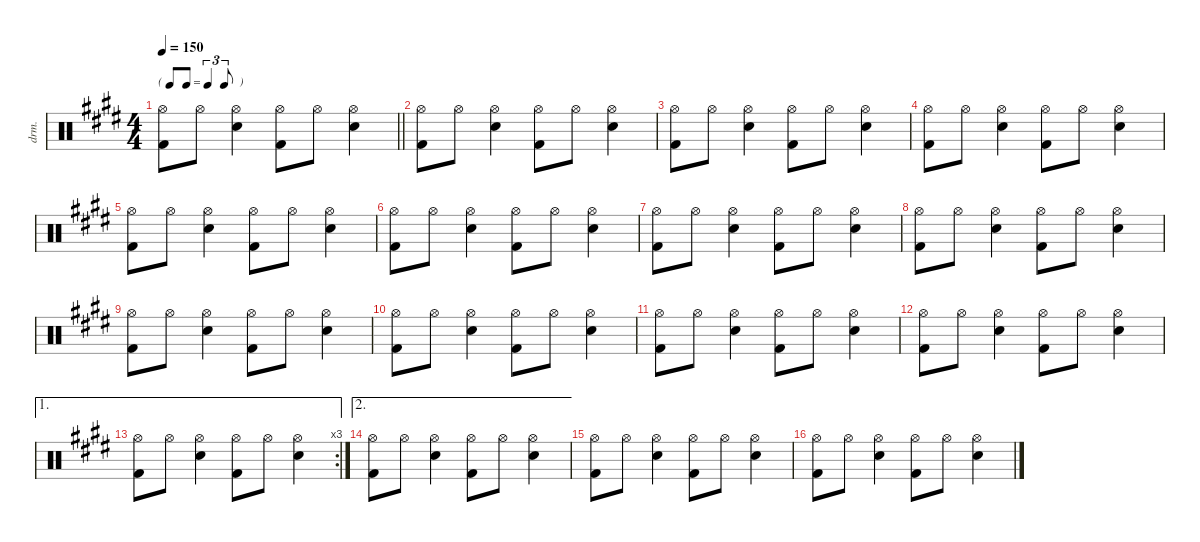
\defaultSystemsLayout 4
\hideDynamics
\bracketExtendMode nobrackets
\otherSystemsTrackNameOrientation horizontal
\track ("Percussion" "drm.") {instrument percussion}
\staff {score}
\articulation defaults
\ts (4 4)
\tf triplet8th
\tempo 150
\clef neutral
\barLineRight lightlight
\ks e
("Hi-Hat (open)"{acc forcenatural} "Kick (hit) 2"{acc forcenatural}).8{dy mf} "Hi-Hat (open)"{acc forcenatural}.8 ("Hi-Hat (open)"{acc forcenatural} "Snare (hit) 2"{acc forcenatural}).4 ("Hi-Hat (open)"{acc forcenatural} "Kick (hit) 2"{acc forcenatural}).8 "Hi-Hat (open)"{acc forcenatural}.8 ("Hi-Hat (open)"{acc forcenatural} "Snare (hit) 2"{acc forcenatural}).4 |
("Hi-Hat (open)"{acc forcenatural} "Kick (hit) 2"{acc forcenatural}).8 "Hi-Hat (open)"{acc forcenatural}.8 ("Hi-Hat (open)"{acc forcenatural} "Snare (hit) 2"{acc forcenatural}).4 ("Hi-Hat (open)"{acc forcenatural} "Kick (hit) 2"{acc forcenatural}).8 "Hi-Hat (open)"{acc forcenatural}.8 ("Hi-Hat (open)"{acc forcenatural} "Snare (hit) 2"{acc forcenatural}).4 |
("Hi-Hat (open)"{acc forcenatural} "Kick (hit) 2"{acc forcenatural}).8 "Hi-Hat (open)"{acc forcenatural}.8 ("Hi-Hat (open)"{acc forcenatural} "Snare (hit) 2"{acc forcenatural}).4 ("Hi-Hat (open)"{acc forcenatural} "Kick (hit) 2"{acc forcenatural}).8 "Hi-Hat (open)"{acc forcenatural}.8 ("Hi-Hat (open)"{acc forcenatural} "Snare (hit) 2"{acc forcenatural}).4 |
("Hi-Hat (open)"{acc forcenatural} "Kick (hit) 2"{acc forcenatural}).8 "Hi-Hat (open)"{acc forcenatural}.8 ("Hi-Hat (open)"{acc forcenatural} "Snare (hit) 2"{acc forcenatural}).4 ("Hi-Hat (open)"{acc forcenatural} "Kick (hit) 2"{acc forcenatural}).8 "Hi-Hat (open)"{acc forcenatural}.8 ("Hi-Hat (open)"{acc forcenatural} "Snare (hit) 2"{acc forcenatural}).4 |
("Hi-Hat (open)"{acc forcenatural} "Kick (hit) 2"{acc forcenatural}).8 "Hi-Hat (open)"{acc forcenatural}.8 ("Hi-Hat (open)"{acc forcenatural} "Snare (hit) 2"{acc forcenatural}).4 ("Hi-Hat (open)"{acc forcenatural} "Kick (hit) 2"{acc forcenatural}).8 "Hi-Hat (open)"{acc forcenatural}.8 ("Hi-Hat (open)"{acc forcenatural} "Snare (hit) 2"{acc forcenatural}).4 |
("Hi-Hat (open)"{acc forcenatural} "Kick (hit) 2"{acc forcenatural}).8 "Hi-Hat (open)"{acc forcenatural}.8 ("Hi-Hat (open)"{acc forcenatural} "Snare (hit) 2"{acc forcenatural}).4 ("Hi-Hat (open)"{acc forcenatural} "Kick (hit) 2"{acc forcenatural}).8 "Hi-Hat (open)"{acc forcenatural}.8 ("Hi-Hat (open)"{acc forcenatural} "Snare (hit) 2"{acc forcenatural}).4 |
("Hi-Hat (open)"{acc forcenatural} "Kick (hit) 2"{acc forcenatural}).8 "Hi-Hat (open)"{acc forcenatural}.8 ("Hi-Hat (open)"{acc forcenatural} "Snare (hit) 2"{acc forcenatural}).4 ("Hi-Hat (open)"{acc forcenatural} "Kick (hit) 2"{acc forcenatural}).8 "Hi-Hat (open)"{acc forcenatural}.8 ("Hi-Hat (open)"{acc forcenatural} "Snare (hit) 2"{acc forcenatural}).4 |
("Hi-Hat (open)"{acc forcenatural} "Kick (hit) 2"{acc forcenatural}).8 "Hi-Hat (open)"{acc forcenatural}.8 ("Hi-Hat (open)"{acc forcenatural} "Snare (hit) 2"{acc forcenatural}).4 ("Hi-Hat (open)"{acc forcenatural} "Kick (hit) 2"{acc forcenatural}).8 "Hi-Hat (open)"{acc forcenatural}.8 ("Hi-Hat (open)"{acc forcenatural} "Snare (hit) 2"{acc forcenatural}).4 |
("Hi-Hat (open)"{acc forcenatural} "Kick (hit) 2"{acc forcenatural}).8 "Hi-Hat (open)"{acc forcenatural}.8 ("Hi-Hat (open)"{acc forcenatural} "Snare (hit) 2"{acc forcenatural}).4 ("Hi-Hat (open)"{acc forcenatural} "Kick (hit) 2"{acc forcenatural}).8 "Hi-Hat (open)"{acc forcenatural}.8 ("Hi-Hat (open)"{acc forcenatural} "Snare (hit) 2"{acc forcenatural}).4 |
("Hi-Hat (open)"{acc forcenatural} "Kick (hit) 2"{acc forcenatural}).8 "Hi-Hat (open)"{acc forcenatural}.8 ("Hi-Hat (open)"{acc forcenatural} "Snare (hit) 2"{acc forcenatural}).4 ("Hi-Hat (open)"{acc forcenatural} "Kick (hit) 2"{acc forcenatural}).8 "Hi-Hat (open)"{acc forcenatural}.8 ("Hi-Hat (open)"{acc forcenatural} "Snare (hit) 2"{acc forcenatural}).4 |
("Hi-Hat (open)"{acc forcenatural} "Kick (hit) 2"{acc forcenatural}).8 "Hi-Hat (open)"{acc forcenatural}.8 ("Hi-Hat (open)"{acc forcenatural} "Snare (hit) 2"{acc forcenatural}).4 ("Hi-Hat (open)"{acc forcenatural} "Kick (hit) 2"{acc forcenatural}).8 "Hi-Hat (open)"{acc forcenatural}.8 ("Hi-Hat (open)"{acc forcenatural} "Snare (hit) 2"{acc forcenatural}).4 |
("Hi-Hat (open)"{acc forcenatural} "Kick (hit) 2"{acc forcenatural}).8 "Hi-Hat (open)"{acc forcenatural}.8 ("Hi-Hat (open)"{acc forcenatural} "Snare (hit) 2"{acc forcenatural}).4 ("Hi-Hat (open)"{acc forcenatural} "Kick (hit) 2"{acc forcenatural}).8 "Hi-Hat (open)"{acc forcenatural}.8 ("Hi-Hat (open)"{acc forcenatural} "Snare (hit) 2"{acc forcenatural}).4 |
\ae 1
\rc 3
("Hi-Hat (open)"{acc forcenatural} "Kick (hit) 2"{acc forcenatural}).8 "Hi-Hat (open)"{acc forcenatural}.8 ("Hi-Hat (open)"{acc forcenatural} "Snare (hit) 2"{acc forcenatural}).4 ("Hi-Hat (open)"{acc forcenatural} "Kick (hit) 2"{acc forcenatural}).8 "Hi-Hat (open)"{acc forcenatural}.8 ("Hi-Hat (open)"{acc forcenatural} "Snare (hit) 2"{acc forcenatural}).4 |
\ae 2
("Hi-Hat (open)"{acc forcenatural} "Kick (hit) 2"{acc forcenatural}).8 "Hi-Hat (open)"{acc forcenatural}.8 ("Hi-Hat (open)"{acc forcenatural} "Snare (hit) 2"{acc forcenatural}).4 ("Hi-Hat (open)"{acc forcenatural} "Kick (hit) 2"{acc forcenatural}).8 "Hi-Hat (open)"{acc forcenatural}.8 ("Hi-Hat (open)"{acc forcenatural} "Snare (hit) 2"{acc forcenatural}).4 |
("Hi-Hat (open)"{acc forcenatural} "Kick (hit) 2"{acc forcenatural}).8 "Hi-Hat (open)"{acc forcenatural}.8 ("Hi-Hat (open)"{acc forcenatural} "Snare (hit) 2"{acc forcenatural}).4 ("Hi-Hat (open)"{acc forcenatural} "Kick (hit) 2"{acc forcenatural}).8 "Hi-Hat (open)"{acc forcenatural}.8 ("Hi-Hat (open)"{acc forcenatural} "Snare (hit) 2"{acc forcenatural}).4 |
("Hi-Hat (open)"{acc forcenatural} "Kick (hit) 2"{acc forcenatural}).8 "Hi-Hat (open)"{acc forcenatural}.8 ("Hi-Hat (open)"{acc forcenatural} "Snare (hit) 2"{acc forcenatural}).4 ("Hi-Hat (open)"{acc forcenatural} "Kick (hit) 2"{acc forcenatural}).8 "Hi-Hat (open)"{acc forcenatural}.8 ("Hi-Hat (open)"{acc forcenatural} "Snare (hit) 2"{acc forcenatural}).4
